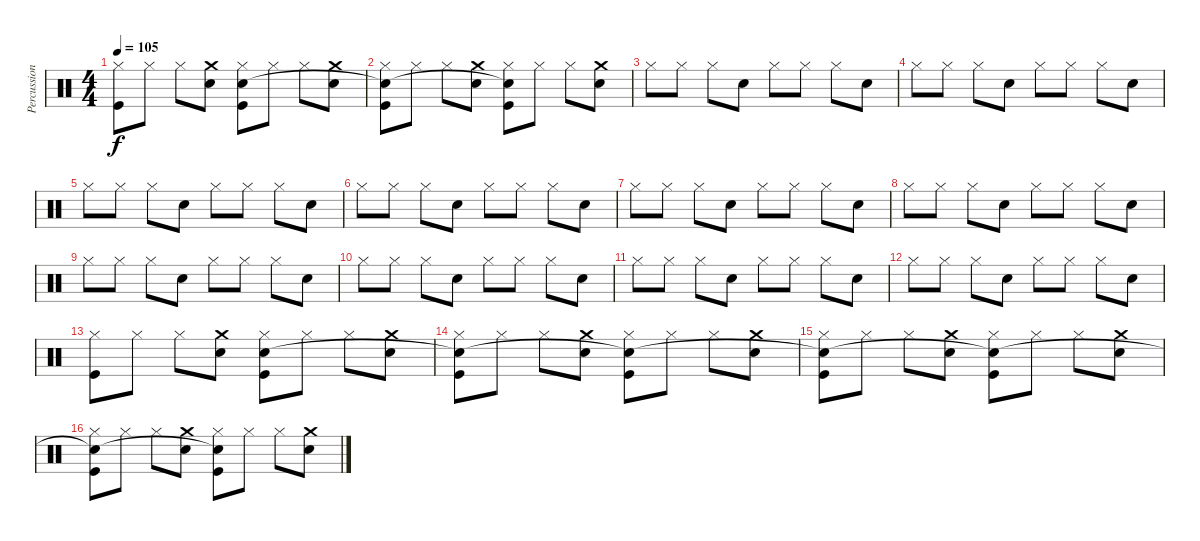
\track ("Percussion" "Percussion") {instrument percussion}
\staff {score}
\articulation defaults
\ts (4 4)
\tempo 105
\clef neutral
\ks c
("Kick (hit)" "Hi-Hat (closed)").8{dy f} "Hi-Hat (closed)".8 "Hi-Hat (closed)".8 ("Snare (hit) 2" "Crash medium (hit)").8 ("Kick (hit)" "Hi-Hat (closed)" "Snare (hit)"{t}).8 "Hi-Hat (closed)".8 "Hi-Hat (closed)".8 ("Snare (hit) 2" "Crash medium (hit)").8 |
("Kick (hit)" "Hi-Hat (closed)" "Snare (hit)"{t}).8 "Hi-Hat (closed)".8 "Hi-Hat (closed)".8 ("Snare (hit) 2" "Crash medium (hit)").8 ("Kick (hit)" "Hi-Hat (closed)" "Snare (hit)"{t}).8 "Hi-Hat (closed)".8 "Hi-Hat (closed)".8 ("Snare (hit) 2" "Crash medium (hit)").8 |
"Hi-Hat (closed)".8 "Hi-Hat (closed)".8 "Hi-Hat (closed)".8 "Snare (hit) 2".8 "Hi-Hat (closed)".8 "Hi-Hat (closed)".8 "Hi-Hat (closed)".8 "Snare (hit) 2".8 |
"Hi-Hat (closed)".8 "Hi-Hat (closed)".8 "Hi-Hat (closed)".8 "Snare (hit) 2".8 "Hi-Hat (closed)".8 "Hi-Hat (closed)".8 "Hi-Hat (closed)".8 "Snare (hit) 2".8 |
"Hi-Hat (closed)".8 "Hi-Hat (closed)".8 "Hi-Hat (closed)".8 "Snare (hit) 2".8 "Hi-Hat (closed)".8 "Hi-Hat (closed)".8 "Hi-Hat (closed)".8 "Snare (hit) 2".8 |
"Hi-Hat (closed)".8 "Hi-Hat (closed)".8 "Hi-Hat (closed)".8 "Snare (hit) 2".8 "Hi-Hat (closed)".8 "Hi-Hat (closed)".8 "Hi-Hat (closed)".8 "Snare (hit) 2".8 |
"Hi-Hat (closed)".8 "Hi-Hat (closed)".8 "Hi-Hat (closed)".8 "Snare (hit) 2".8 "Hi-Hat (closed)".8 "Hi-Hat (closed)".8 "Hi-Hat (closed)".8 "Snare (hit) 2".8 |
"Hi-Hat (closed)".8 "Hi-Hat (closed)".8 "Hi-Hat (closed)".8 "Snare (hit) 2".8 "Hi-Hat (closed)".8 "Hi-Hat (closed)".8 "Hi-Hat (closed)".8 "Snare (hit) 2".8 |
"Hi-Hat (closed)".8 "Hi-Hat (closed)".8 "Hi-Hat (closed)".8 "Snare (hit) 2".8 "Hi-Hat (closed)".8 "Hi-Hat (closed)".8 "Hi-Hat (closed)".8 "Snare (hit) 2".8 |
"Hi-Hat (closed)".8 "Hi-Hat (closed)".8 "Hi-Hat (closed)".8 "Snare (hit) 2".8 "Hi-Hat (closed)".8 "Hi-Hat (closed)".8 "Hi-Hat (closed)".8 "Snare (hit) 2".8 |
"Hi-Hat (closed)".8 "Hi-Hat (closed)".8 "Hi-Hat (closed)".8 "Snare (hit) 2".8 "Hi-Hat (closed)".8 "Hi-Hat (closed)".8 "Hi-Hat (closed)".8 "Snare (hit) 2".8 |
"Hi-Hat (closed)".8 "Hi-Hat (closed)".8 "Hi-Hat (closed)".8 "Snare (hit) 2".8 "Hi-Hat (closed)".8 "Hi-Hat (closed)".8 "Hi-Hat (closed)".8 "Snare (hit) 2".8 |
("Kick (hit)" "Hi-Hat (closed)").8 "Hi-Hat (closed)".8 "Hi-Hat (closed)".8 ("Snare (hit) 2" "Crash medium (hit)").8 ("Kick (hit)" "Hi-Hat (closed)" "Snare (hit)").8 "Hi-Hat (closed)".8 "Hi-Hat (closed)".8 ("Snare (hit) 2" "Crash medium (hit)").8 |
("Kick (hit)" "Hi-Hat (closed)" "Snare (hit)"{t}).8 "Hi-Hat (closed)".8 "Hi-Hat (closed)".8 ("Snare (hit) 2" "Crash medium (hit)").8 ("Kick (hit)" "Hi-Hat (closed)" "Snare (hit)"{t}).8 "Hi-Hat (closed)".8 "Hi-Hat (closed)".8 ("Snare (hit) 2" "Crash medium (hit)").8 |
("Kick (hit)" "Hi-Hat (closed)" "Snare (hit)"{t}).8 "Hi-Hat (closed)".8 "Hi-Hat (closed)".8 ("Snare (hit) 2" "Crash medium (hit)").8 ("Kick (hit)" "Hi-Hat (closed)" "Snare (hit)"{t}).8 "Hi-Hat (closed)".8 "Hi-Hat (closed)".8 ("Snare (hit) 2" "Crash medium (hit)").8 |
("Kick (hit)" "Hi-Hat (closed)" "Snare (hit)"{t}).8 "Hi-Hat (closed)".8 "Hi-Hat (closed)".8 ("Snare (hit) 2" "Crash medium (hit)").8 ("Kick (hit)" "Hi-Hat (closed)" "Snare (hit)"{t}).8 "Hi-Hat (closed)".8 "Hi-Hat (closed)".8 ("Snare (hit) 2" "Crash medium (hit)").8
